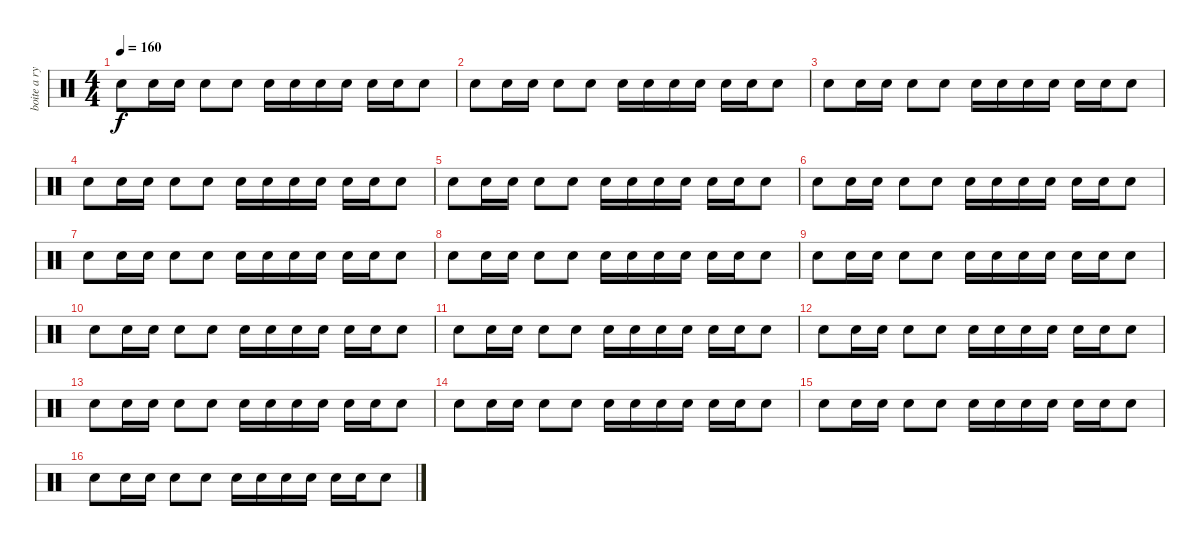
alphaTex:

\track ("boite a rythme" "boite a ry") {instrument percussion}
\staff {score}
\articulation defaults
\ts (4 4)
\tempo 160
\clef neutral
\ks c "Snare (hit) 2".8{dy f} "Snare (hit) 2".16 "Snare (hit) 2".16 "Snare (hit) 2".8 "Snare (hit) 2".8 "Snare (hit) 2".16 "Snare (hit) 2".16 "Snare (hit) 2".16 "Snare (hit) 2".16 "Snare (hit) 2".16 "Snare (hit) 2".16 "Snare (hit) 2".8
|
"Snare (hit) 2".8 "Snare (hit) 2".16 "Snare (hit) 2".16 "Snare (hit) 2".8 "Snare (hit) 2".8 "Snare (hit) 2".16 "Snare (hit) 2".16 "Snare (hit) 2".16 "Snare (hit) 2".16 "Snare (hit) 2".16 "Snare (hit) 2".16 "Snare (hit) 2".8 |
"Snare (hit) 2".8 "Snare (hit) 2".16 "Snare (hit) 2".16 "Snare (hit) 2".8 "Snare (hit) 2".8 "Snare (hit) 2".16 "Snare (hit) 2".16 "Snare (hit) 2".16 "Snare (hit) 2".16 "Snare (hit) 2".16 "Snare (hit) 2".16 "Snare (hit) 2".8 |
"Snare (hit) 2".8 "Snare (hit) 2".16 "Snare (hit) 2".16 "Snare (hit) 2".8 "Snare (hit) 2".8 "Snare (hit) 2".16 "Snare (hit) 2".16 "Snare (hit) 2".16 "Snare (hit) 2".16 "Snare (hit) 2".16 "Snare (hit) 2".16 "Snare (hit) 2".8 |
"Snare (hit) 2".8 "Snare (hit) 2".16 "Snare (hit) 2".16 "Snare (hit) 2".8 "Snare (hit) 2".8 "Snare (hit) 2".16 "Snare (hit) 2".16 "Snare (hit) 2".16 "Snare (hit) 2".16 "Snare (hit) 2".16 "Snare (hit) 2".16 "Snare (hit) 2".8 |
"Snare (hit) 2".8 "Snare (hit) 2".16 "Snare (hit) 2".16 "Snare (hit) 2".8 "Snare (hit) 2".8 "Snare (hit) 2".16 "Snare (hit) 2".16 "Snare (hit) 2".16 "Snare (hit) 2".16 "Snare (hit) 2".16 "Snare (hit) 2".16 "Snare (hit) 2".8 |
"Snare (hit) 2".8 "Snare (hit) 2".16 "Snare (hit) 2".16 "Snare (hit) 2".8 "Snare (hit) 2".8 "Snare (hit) 2".16 "Snare (hit) 2".16 "Snare (hit) 2".16 "Snare (hit) 2".16 "Snare (hit) 2".16 "Snare (hit) 2".16 "Snare (hit) 2".8 |
"Snare (hit) 2".8 "Snare (hit) 2".16 "Snare (hit) 2".16 "Snare (hit) 2".8 "Snare (hit) 2".8 "Snare (hit) 2".16 "Snare (hit) 2".16 "Snare (hit) 2".16 "Snare (hit) 2".16 "Snare (hit) 2".16 "Snare (hit) 2".16 "Snare (hit) 2".8 |
"Snare (hit) 2".8 "Snare (hit) 2".16 "Snare (hit) 2".16 "Snare (hit) 2".8 "Snare (hit) 2".8 "Snare (hit) 2".16 "Snare (hit) 2".16 "Snare (hit) 2".16 "Snare (hit) 2".16 "Snare (hit) 2".16 "Snare (hit) 2".16 "Snare (hit) 2".8 |
"Snare (hit) 2".8 "Snare (hit) 2".16 "Snare (hit) 2".16 "Snare (hit) 2".8 "Snare (hit) 2".8 "Snare (hit) 2".16 "Snare (hit) 2".16 "Snare (hit) 2".16 "Snare (hit) 2".16 "Snare (hit) 2".16 "Snare (hit) 2".16 "Snare (hit) 2".8 |
"Snare (hit) 2".8 "Snare (hit) 2".16 "Snare (hit) 2".16 "Snare (hit) 2".8 "Snare (hit) 2".8 "Snare (hit) 2".16 "Snare (hit) 2".16 "Snare (hit) 2".16 "Snare (hit) 2".16 "Snare (hit) 2".16 "Snare (hit) 2".16 "Snare (hit) 2".8 |
"Snare (hit) 2".8 "Snare (hit) 2".16 "Snare (hit) 2".16 "Snare (hit) 2".8 "Snare (hit) 2".8 "Snare (hit) 2".16 "Snare (hit) 2".16 "Snare (hit) 2".16 "Snare (hit) 2".16 "Snare (hit) 2".16 "Snare (hit) 2".16 "Snare (hit) 2".8 |
"Snare (hit) 2".8 "Snare (hit) 2".16 "Snare (hit) 2".16 "Snare (hit) 2".8 "Snare (hit) 2".8 "Snare (hit) 2".16 "Snare (hit) 2".16 "Snare (hit) 2".16 "Snare (hit) 2".16 "Snare (hit) 2".16 "Snare (hit) 2".16 "Snare (hit) 2".8 |
"Snare (hit) 2".8 "Snare (hit) 2".16 "Snare (hit) 2".16 "Snare (hit) 2".8 "Snare (hit) 2".8 "Snare (hit) 2".16 "Snare (hit) 2".16 "Snare (hit) 2".16 "Snare (hit) 2".16 "Snare (hit) 2".16 "Snare (hit) 2".16 "Snare (hit) 2".8 |
"Snare (hit) 2".8 "Snare (hit) 2".16 "Snare (hit) 2".16 "Snare (hit) 2".8 "Snare (hit) 2".8 "Snare (hit) 2".16 "Snare (hit) 2".16 "Snare (hit) 2".16 "Snare (hit) 2".16 "Snare (hit) 2".16 "Snare (hit) 2".16 "Snare (hit) 2".8 |
"Snare (hit) 2".8 "Snare (hit) 2".16 "Snare (hit) 2".16 "Snare (hit) 2".8 "Snare (hit) 2".8 "Snare (hit) 2".16 "Snare (hit) 2".16 "Snare (hit) 2".16 "Snare (hit) 2".16 "Snare (hit) 2".16 "Snare (hit) 2".16 "Snare (hit) 2".8
